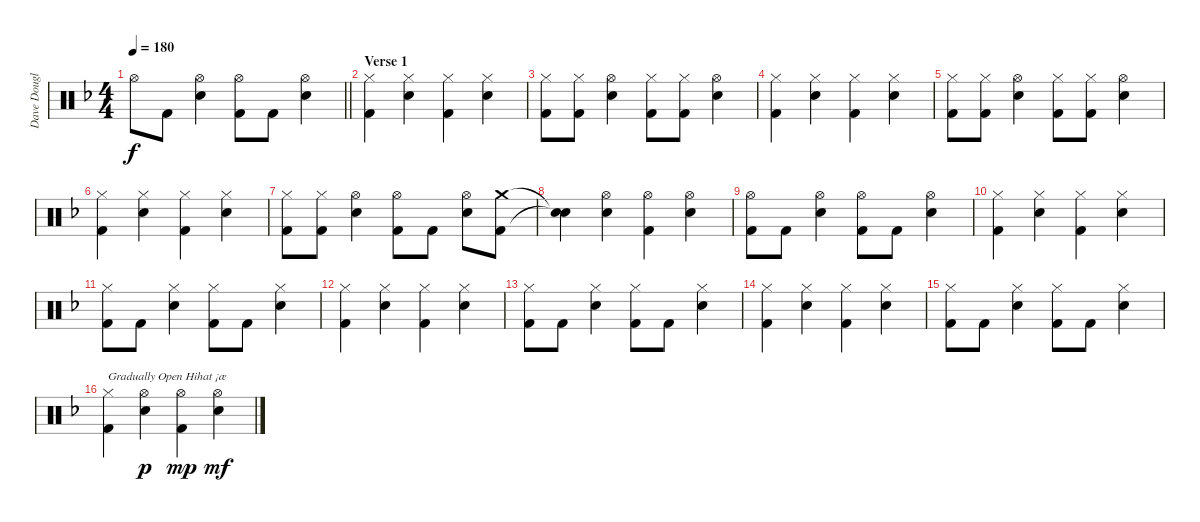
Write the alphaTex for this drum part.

\track ("Dave Douglas (Drum)" "Dave Dougl") {instrument percussion}
\staff {score}
\articulation defaults
\ts (4 4)
\tempo 180
\clef neutral
\barLineRight lightlight
\ks dminor "Hi-Hat (open)".8{dy f} "Kick (hit) 2".8
("Hi-Hat (open)" "Snare (hit) 2").4 ("Hi-Hat (open)" "Kick (hit) 2").8 "Kick (hit) 2".8 ("Hi-Hat (open)" "Snare (hit) 2").4 |
\section ("" "Verse 1")
("Hi-Hat (closed)" "Kick (hit) 2").4 ("Hi-Hat (closed)" "Snare (hit) 2").4 ("Hi-Hat (closed)" "Kick (hit) 2").4 ("Hi-Hat (closed)" "Snare (hit) 2").4 |
("Hi-Hat (closed)" "Kick (hit) 2").8 ("Hi-Hat (closed)" "Kick (hit) 2").8 ("Hi-Hat (open)" "Snare (hit) 2").4 ("Hi-Hat (closed)" "Kick (hit) 2").8 ("Hi-Hat (closed)" "Kick (hit) 2").8 ("Hi-Hat (open)" "Snare (hit) 2").4 |
("Hi-Hat (closed)" "Kick (hit) 2").4 ("Hi-Hat (closed)" "Snare (hit) 2").4 ("Hi-Hat (closed)" "Kick (hit) 2").4 ("Hi-Hat (closed)" "Snare (hit) 2").4 |
("Hi-Hat (closed)" "Kick (hit) 2").8 ("Hi-Hat (closed)" "Kick (hit) 2").8 ("Hi-Hat (open)" "Snare (hit) 2").4 ("Hi-Hat (closed)" "Kick (hit) 2").8 ("Hi-Hat (closed)" "Kick (hit) 2").8 ("Hi-Hat (open)" "Snare (hit) 2").4 |
("Hi-Hat (closed)" "Kick (hit) 2").4 ("Hi-Hat (closed)" "Snare (hit) 2").4 ("Hi-Hat (closed)" "Kick (hit) 2").4 ("Hi-Hat (closed)" "Snare (hit) 2").4 |
("Hi-Hat (closed)" "Kick (hit) 2").8 ("Hi-Hat (closed)" "Kick (hit) 2").8 ("Hi-Hat (open)" "Snare (hit) 2").4 ("Hi-Hat (open)" "Kick (hit) 2").8 "Kick (hit) 2".8 ("Hi-Hat (open)" "Snare (hit) 2").8 ("Crash medium (hit)" "Kick (hit) 2").8 |
("Snare (hit)"{t} "Snare (hit)"{t}).4 ("Hi-Hat (open)" "Snare (hit) 2").4 ("Hi-Hat (open)" "Kick (hit) 2").4 ("Hi-Hat (open)" "Snare (hit) 2").4 |
("Hi-Hat (open)" "Kick (hit) 2").8 "Kick (hit) 2".8 ("Hi-Hat (open)" "Snare (hit) 2").4 ("Hi-Hat (open)" "Kick (hit) 2").8 "Kick (hit) 2".8 ("Hi-Hat (open)" "Snare (hit) 2").4 |
("Hi-Hat (closed)" "Kick (hit) 2").4 ("Hi-Hat (closed)" "Snare (hit) 2").4 ("Hi-Hat (closed)" "Kick (hit) 2").4 ("Hi-Hat (closed)" "Snare (hit) 2").4 |
("Hi-Hat (closed)" "Kick (hit) 2").8 "Kick (hit) 2".8 ("Hi-Hat (closed)" "Snare (hit) 2").4 ("Hi-Hat (closed)" "Kick (hit) 2").8 "Kick (hit) 2".8 ("Hi-Hat (closed)" "Snare (hit) 2").4 |
("Hi-Hat (closed)" "Kick (hit) 2").4 ("Hi-Hat (closed)" "Snare (hit) 2").4 ("Hi-Hat (closed)" "Kick (hit) 2").4 ("Hi-Hat (closed)" "Snare (hit) 2").4 |
("Hi-Hat (closed)" "Kick (hit) 2").8 "Kick (hit) 2".8 ("Hi-Hat (closed)" "Snare (hit) 2").4 ("Hi-Hat (closed)" "Kick (hit) 2").8 "Kick (hit) 2".8 ("Hi-Hat (closed)" "Snare (hit) 2").4 |
("Hi-Hat (closed)" "Kick (hit) 2").4 ("Hi-Hat (closed)" "Snare (hit) 2").4 ("Hi-Hat (closed)" "Kick (hit) 2").4 ("Hi-Hat (closed)" "Snare (hit) 2").4 |
("Hi-Hat (closed)" "Kick (hit) 2").8 "Kick (hit) 2".8 ("Hi-Hat (closed)" "Snare (hit) 2").4 ("Hi-Hat (closed)" "Kick (hit) 2").8 "Kick (hit) 2".8 ("Hi-Hat (closed)" "Snare (hit) 2").4 |
("Hi-Hat (closed)" "Kick (hit) 2").4{txt "Gradually Open Hihat ¡æ"} ("Hi-Hat (open)" "Snare (hit) 2").4{dy p} ("Hi-Hat (open)" "Kick (hit) 2").4{dy mp} ("Hi-Hat (open)" "Snare (hit) 2").4{dy mf}
